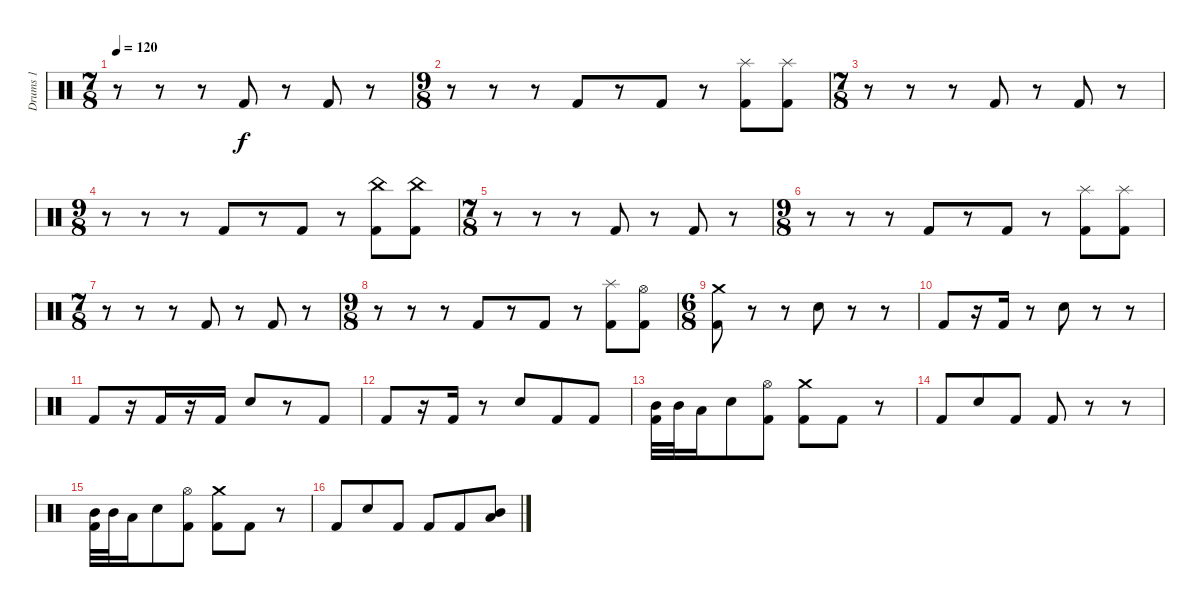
\track ("Drums 1" "Drums 1") {instrument percussion}
\staff {score}
\articulation defaults
\ts (7 8)
\tempo 120
\clef neutral
\ks c
r.8{dy f} r.8 r.8 "Kick (hit) 2".8 r.8 "Kick (hit) 2".8 r.8 |
\ts (9 8)
r.8 r.8 r.8 "Kick (hit) 2".8 r.8 "Kick (hit) 2".8 r.8 ("Splash (hit)" "Kick (hit) 2").8 ("Splash (hit)" "Kick (hit) 2").8 |
\ts (7 8)
r.8 r.8 r.8 "Kick (hit) 2".8 r.8 "Kick (hit) 2".8 r.8 |
\ts (9 8)
r.8 r.8 r.8 "Kick (hit) 2".8 r.8 "Kick (hit) 2".8 r.8 ("China (hit)" "Kick (hit) 2").8 ("China (hit)" "Kick (hit) 2").8 |
\ts (7 8)
r.8 r.8 r.8 "Kick (hit) 2".8 r.8 "Kick (hit) 2".8 r.8 |
\ts (9 8)
r.8 r.8 r.8 "Kick (hit) 2".8 r.8 "Kick (hit) 2".8 r.8 ("Splash (hit)" "Kick (hit) 2").8 ("Splash (hit)" "Kick (hit) 2").8 |
\ts (7 8)
r.8 r.8 r.8 "Kick (hit) 2".8 r.8 "Kick (hit) 2".8 r.8 |
\ts (9 8)
r.8 r.8 r.8 "Kick (hit) 2".8 r.8 "Kick (hit) 2".8 r.8 ("Splash (hit)" "Kick (hit) 2").8 ("Hi-Hat (open)" "Kick (hit) 2").8 |
\ts (6 8)
("Crash medium (hit)" "Kick (hit) 2").8 r.8 r.8 "Snare (hit) 2".8 r.8 r.8 |
"Kick (hit) 2".8 r.16 "Kick (hit) 2".16 r.8 "Snare (hit) 2".8 r.8 r.8 |
"Kick (hit) 2".8 r.16 "Kick (hit) 2".16 r.16 "Kick (hit) 2".16 "Snare (hit) 2".8 r.8 "Kick (hit) 2".8 |
"Kick (hit) 2".8 r.16 "Kick (hit) 2".16 r.8 "Snare (hit) 2".8 "Kick (hit) 2".8 "Kick (hit) 2".8 |
("Mid Tom (hit)" "Kick (hit) 2").32 "Mid Tom (hit)".32 "Low Tom (hit)".16 "Snare (hit) 2".8 ("Hi-Hat (open)" "Kick (hit) 2").8 ("Crash medium (hit)" "Kick (hit) 2").8 "Kick (hit) 2".8 r.8 |
"Kick (hit) 2".8 "Snare (hit) 2".8 "Kick (hit) 2".8 "Kick (hit) 2".8 r.8 r.8 |
("Mid Tom (hit)" "Kick (hit) 2").32 "Mid Tom (hit)".32 "Low Tom (hit)".16 "Snare (hit) 2".8 ("Hi-Hat (open)" "Kick (hit) 2").8 ("Crash medium (hit)" "Kick (hit) 2").8 "Kick (hit) 2".8 r.8 |
"Kick (hit) 2".8 "Snare (hit) 2".8 "Kick (hit) 2".8 "Kick (hit) 2".8 "Kick (hit) 2".8 ("Mid Tom (hit)" "Low Tom (hit)").8
